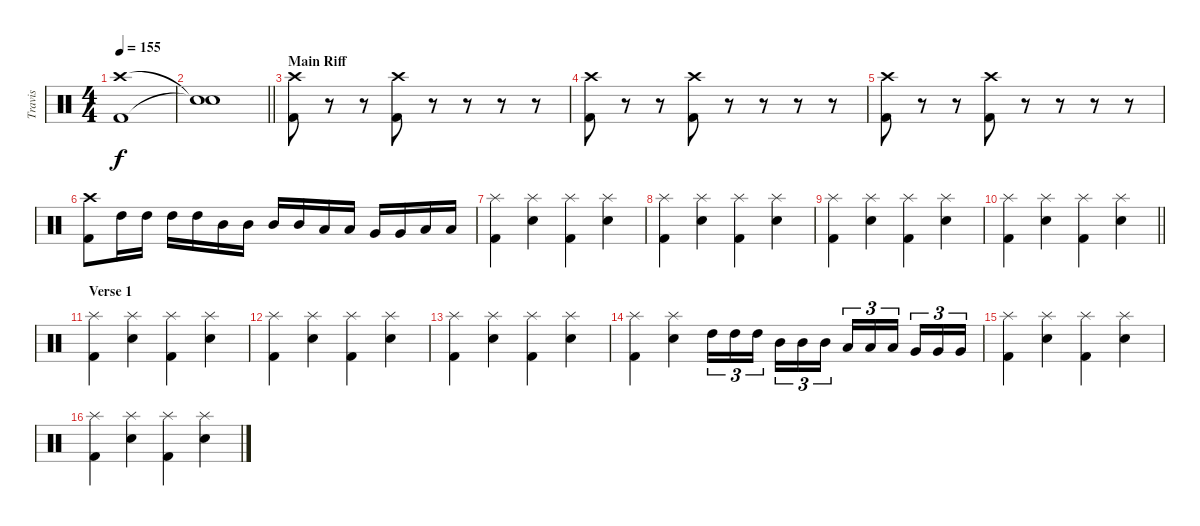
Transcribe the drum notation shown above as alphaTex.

\track ("Travis" "Travis") {instrument percussion}
\staff {score}
\articulation defaults
\ts (4 4)
\tempo 155
\clef neutral
\ks c
("Crash high (hit)" "Kick (hit) 2").1{dy f} |
\barLineRight lightlight
("Snare (hit)"{t} "Snare (hit)"{t}).1 |
\section ("" "Main Riff")
("Crash high (hit)" "Kick (hit) 2").8 r.8 r.8 ("Crash high (hit)" "Kick (hit) 2").8 r.8 r.8 r.8 r.8 |
("Crash high (hit)" "Kick (hit) 2").8 r.8 r.8 ("Crash high (hit)" "Kick (hit) 2").8 r.8 r.8 r.8 r.8 |
("Crash high (hit)" "Kick (hit) 2").8 r.8 r.8 ("Crash high (hit)" "Kick (hit) 2").8 r.8 r.8 r.8 r.8 |
("Crash high (hit)" "Kick (hit) 2").8 "High Tom (hit)".16 "High Tom (hit)".16 "High Tom (hit)".16 "High Tom (hit)".16 "Mid Tom (hit)".16 "Mid Tom (hit)".16 "Mid Tom (hit)".16 "Mid Tom (hit)".16 "Low Tom (hit)".16 "Low Tom (hit)".16 "Very Low Tom (hit)".16 "Very Low Tom (hit)".16 "Low Floor Tom (hit)".16 "Low Floor Tom (hit)".16 |
("Splash (hit)" "Kick (hit) 2").4 ("Splash (hit)" "Snare (hit) 2").4 ("Splash (hit)" "Kick (hit) 2").4 ("Splash (hit)" "Snare (hit) 2").4 |
("Splash (hit)" "Kick (hit) 2").4 ("Splash (hit)" "Snare (hit) 2").4 ("Splash (hit)" "Kick (hit) 2").4 ("Splash (hit)" "Snare (hit) 2").4 |
("Splash (hit)" "Kick (hit) 2").4 ("Splash (hit)" "Snare (hit) 2").4 ("Splash (hit)" "Kick (hit) 2").4 ("Splash (hit)" "Snare (hit) 2").4 |
\barLineRight lightlight
("Splash (hit)" "Kick (hit) 2").4 ("Splash (hit)" "Snare (hit) 2").4 ("Splash (hit)" "Kick (hit) 2").4 ("Splash (hit)" "Snare (hit) 2").4 |
\section ("" "Verse 1")
("Splash (hit)" "Kick (hit) 2").4 ("Splash (hit)" "Snare (hit) 2").4 ("Splash (hit)" "Kick (hit) 2").4 ("Splash (hit)" "Snare (hit) 2").4 |
("Splash (hit)" "Kick (hit) 2").4 ("Splash (hit)" "Snare (hit) 2").4 ("Splash (hit)" "Kick (hit) 2").4 ("Splash (hit)" "Snare (hit) 2").4 |
("Splash (hit)" "Kick (hit) 2").4 ("Splash (hit)" "Snare (hit) 2").4 ("Splash (hit)" "Kick (hit) 2").4 ("Splash (hit)" "Snare (hit) 2").4 |
("Splash (hit)" "Kick (hit) 2").4 ("Splash (hit)" "Snare (hit) 2").4 "High Tom (hit)".16{tu (3 2)} "High Tom (hit)".16{tu (3 2)} "High Tom (hit)".16{tu (3 2)} "Mid Tom (hit)".16{tu (3 2)} "Mid Tom (hit)".16{tu (3 2)} "Mid Tom (hit)".16{tu (3 2)} "Low Tom (hit)".16{tu (3 2)} "Low Tom (hit)".16{tu (3 2)} "Low Tom (hit)".16{tu (3 2)} "Very Low Tom (hit)".16{tu (3 2)} "Very Low Tom (hit)".16{tu (3 2)} "Very Low Tom (hit)".16{tu (3 2)} |
("Splash (hit)" "Kick (hit) 2").4 ("Splash (hit)" "Snare (hit) 2").4 ("Splash (hit)" "Kick (hit) 2").4 ("Splash (hit)" "Snare (hit) 2").4 |
("Splash (hit)" "Kick (hit) 2").4 ("Splash (hit)" "Snare (hit) 2").4 ("Splash (hit)" "Kick (hit) 2").4 ("Splash (hit)" "Snare (hit) 2").4
